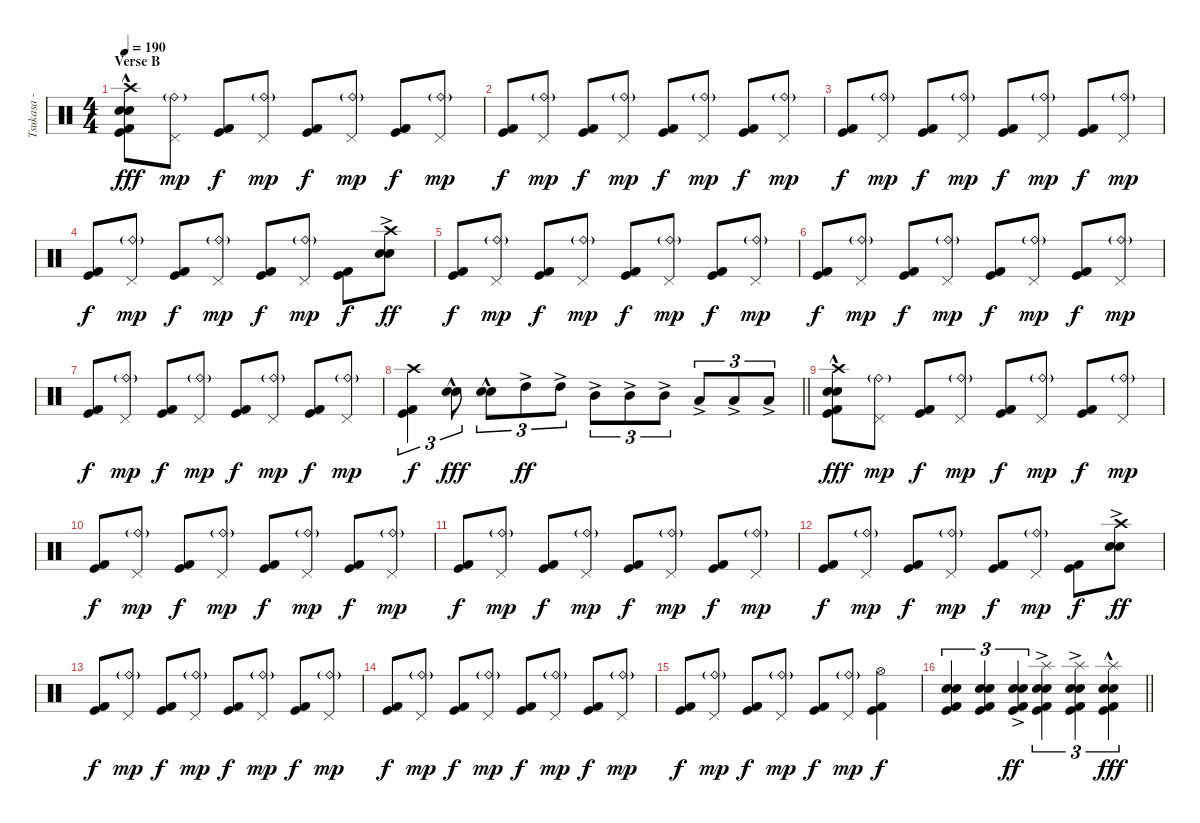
\track ("Tsukasa - Drums" "Tsukasa - ") {instrument percussion}
\staff {score}
\articulation defaults
\ts (4 4)
\section ("" "Verse B")
\tempo 190
\clef neutral
\ks c
("Crash high (hit)" "Electric Snare (hit)"{hac} "Snare (hit) 2" "Kick (hit)" "Kick (hit) 2").8{dy fff} ("Ride (bell)"{g} "Pedal Hi-Hat (hit)").8{dy mp} ("Kick (hit)" "Kick (hit) 2").8{dy f} ("Ride (bell)"{g} "Pedal Hi-Hat (hit)").8{dy mp} ("Kick (hit)" "Kick (hit) 2").8{dy f} ("Ride (bell)"{g} "Pedal Hi-Hat (hit)").8{dy mp} ("Kick (hit)" "Kick (hit) 2").8{dy f} ("Ride (bell)"{g} "Pedal Hi-Hat (hit)").8{dy mp} |
("Kick (hit)" "Kick (hit) 2").8{dy f} ("Ride (bell)"{g} "Pedal Hi-Hat (hit)").8{dy mp} ("Kick (hit)" "Kick (hit) 2").8{dy f} ("Ride (bell)"{g} "Pedal Hi-Hat (hit)").8{dy mp} ("Kick (hit)" "Kick (hit) 2").8{dy f} ("Ride (bell)"{g} "Pedal Hi-Hat (hit)").8{dy mp} ("Kick (hit)" "Kick (hit) 2").8{dy f} ("Ride (bell)"{g} "Pedal Hi-Hat (hit)").8{dy mp} |
("Kick (hit)" "Kick (hit) 2").8{dy f} ("Ride (bell)"{g} "Pedal Hi-Hat (hit)").8{dy mp} ("Kick (hit)" "Kick (hit) 2").8{dy f} ("Ride (bell)"{g} "Pedal Hi-Hat (hit)").8{dy mp} ("Kick (hit)" "Kick (hit) 2").8{dy f} ("Ride (bell)"{g} "Pedal Hi-Hat (hit)").8{dy mp} ("Kick (hit)" "Kick (hit) 2").8{dy f} ("Ride (bell)"{g} "Pedal Hi-Hat (hit)").8{dy mp} |
("Kick (hit)" "Kick (hit) 2").8{dy f} ("Ride (bell)"{g} "Pedal Hi-Hat (hit)").8{dy mp} ("Kick (hit)" "Kick (hit) 2").8{dy f} ("Ride (bell)"{g} "Pedal Hi-Hat (hit)").8{dy mp} ("Kick (hit)" "Kick (hit) 2").8{dy f} ("Ride (bell)"{g} "Pedal Hi-Hat (hit)").8{dy mp} ("Kick (hit)" "Kick (hit) 2").8{dy f} ("Crash high (hit)" "Electric Snare (hit)"{ac} "Snare (hit) 2").8{dy ff} |
("Kick (hit)" "Kick (hit) 2").8{dy f} ("Ride (bell)"{g} "Pedal Hi-Hat (hit)").8{dy mp} ("Kick (hit)" "Kick (hit) 2").8{dy f} ("Ride (bell)"{g} "Pedal Hi-Hat (hit)").8{dy mp} ("Kick (hit)" "Kick (hit) 2").8{dy f} ("Ride (bell)"{g} "Pedal Hi-Hat (hit)").8{dy mp} ("Kick (hit)" "Kick (hit) 2").8{dy f} ("Ride (bell)"{g} "Pedal Hi-Hat (hit)").8{dy mp} |
("Kick (hit)" "Kick (hit) 2").8{dy f} ("Ride (bell)"{g} "Pedal Hi-Hat (hit)").8{dy mp} ("Kick (hit)" "Kick (hit) 2").8{dy f} ("Ride (bell)"{g} "Pedal Hi-Hat (hit)").8{dy mp} ("Kick (hit)" "Kick (hit) 2").8{dy f} ("Ride (bell)"{g} "Pedal Hi-Hat (hit)").8{dy mp} ("Kick (hit)" "Kick (hit) 2").8{dy f} ("Ride (bell)"{g} "Pedal Hi-Hat (hit)").8{dy mp} |
("Kick (hit)" "Kick (hit) 2").8{dy f} ("Ride (bell)"{g} "Pedal Hi-Hat (hit)").8{dy mp} ("Kick (hit)" "Kick (hit) 2").8{dy f} ("Ride (bell)"{g} "Pedal Hi-Hat (hit)").8{dy mp} ("Kick (hit)" "Kick (hit) 2").8{dy f} ("Ride (bell)"{g} "Pedal Hi-Hat (hit)").8{dy mp} ("Kick (hit)" "Kick (hit) 2").8{dy f} ("Ride (bell)"{g} "Pedal Hi-Hat (hit)").8{dy mp} |
\barLineRight lightlight
("Crash high (hit)" "Kick (hit)" "Kick (hit) 2").4{tu (3 2) dy f} ("Electric Snare (hit)"{hac} "Snare (hit) 2").8{tu (3 2) dy fff} ("Electric Snare (hit)"{hac} "Snare (hit) 2").8{tu (3 2)} "High Tom (hit)"{ac}.8{tu (3 2) dy ff} "High Tom (hit)"{ac}.8{tu (3 2)} "Mid Tom (hit)"{ac}.8{tu (3 2)} "Mid Tom (hit)"{ac}.8{tu (3 2)} "Mid Tom (hit)"{ac}.8{tu (3 2)} "Low Tom (hit)"{ac}.8{tu (3 2)} "Low Tom (hit)"{ac}.8{tu (3 2)} "Low Tom (hit)"{ac}.8{tu (3 2)} |
\section ("" "")
("Crash high (hit)" "Electric Snare (hit)"{hac} "Snare (hit) 2" "Kick (hit)" "Kick (hit) 2").8{dy fff} ("Ride (bell)"{g} "Pedal Hi-Hat (hit)").8{dy mp} ("Kick (hit)" "Kick (hit) 2").8{dy f} ("Ride (bell)"{g} "Pedal Hi-Hat (hit)").8{dy mp} ("Kick (hit)" "Kick (hit) 2").8{dy f} ("Ride (bell)"{g} "Pedal Hi-Hat (hit)").8{dy mp} ("Kick (hit)" "Kick (hit) 2").8{dy f} ("Ride (bell)"{g} "Pedal Hi-Hat (hit)").8{dy mp} |
("Kick (hit)" "Kick (hit) 2").8{dy f} ("Ride (bell)"{g} "Pedal Hi-Hat (hit)").8{dy mp} ("Kick (hit)" "Kick (hit) 2").8{dy f} ("Ride (bell)"{g} "Pedal Hi-Hat (hit)").8{dy mp} ("Kick (hit)" "Kick (hit) 2").8{dy f} ("Ride (bell)"{g} "Pedal Hi-Hat (hit)").8{dy mp} ("Kick (hit)" "Kick (hit) 2").8{dy f} ("Ride (bell)"{g} "Pedal Hi-Hat (hit)").8{dy mp} |
("Kick (hit)" "Kick (hit) 2").8{dy f} ("Ride (bell)"{g} "Pedal Hi-Hat (hit)").8{dy mp} ("Kick (hit)" "Kick (hit) 2").8{dy f} ("Ride (bell)"{g} "Pedal Hi-Hat (hit)").8{dy mp} ("Kick (hit)" "Kick (hit) 2").8{dy f} ("Ride (bell)"{g} "Pedal Hi-Hat (hit)").8{dy mp} ("Kick (hit)" "Kick (hit) 2").8{dy f} ("Ride (bell)"{g} "Pedal Hi-Hat (hit)").8{dy mp} |
("Kick (hit)" "Kick (hit) 2").8{dy f} ("Ride (bell)"{g} "Pedal Hi-Hat (hit)").8{dy mp} ("Kick (hit)" "Kick (hit) 2").8{dy f} ("Ride (bell)"{g} "Pedal Hi-Hat (hit)").8{dy mp} ("Kick (hit)" "Kick (hit) 2").8{dy f} ("Ride (bell)"{g} "Pedal Hi-Hat (hit)").8{dy mp} ("Kick (hit)" "Kick (hit) 2").8{dy f} ("Crash high (hit)" "Electric Snare (hit)"{ac} "Snare (hit) 2").8{dy ff} |
("Kick (hit)" "Kick (hit) 2").8{dy f} ("Ride (bell)"{g} "Pedal Hi-Hat (hit)").8{dy mp} ("Kick (hit)" "Kick (hit) 2").8{dy f} ("Ride (bell)"{g} "Pedal Hi-Hat (hit)").8{dy mp} ("Kick (hit)" "Kick (hit) 2").8{dy f} ("Ride (bell)"{g} "Pedal Hi-Hat (hit)").8{dy mp} ("Kick (hit)" "Kick (hit) 2").8{dy f} ("Ride (bell)"{g} "Pedal Hi-Hat (hit)").8{dy mp} |
("Kick (hit)" "Kick (hit) 2").8{dy f} ("Ride (bell)"{g} "Pedal Hi-Hat (hit)").8{dy mp} ("Kick (hit)" "Kick (hit) 2").8{dy f} ("Ride (bell)"{g} "Pedal Hi-Hat (hit)").8{dy mp} ("Kick (hit)" "Kick (hit) 2").8{dy f} ("Ride (bell)"{g} "Pedal Hi-Hat (hit)").8{dy mp} ("Kick (hit)" "Kick (hit) 2").8{dy f} ("Ride (bell)"{g} "Pedal Hi-Hat (hit)").8{dy mp} |
("Kick (hit)" "Kick (hit) 2").8{dy f} ("Ride (bell)"{g} "Pedal Hi-Hat (hit)").8{dy mp} ("Kick (hit)" "Kick (hit) 2").8{dy f} ("Ride (bell)"{g} "Pedal Hi-Hat (hit)").8{dy mp} ("Kick (hit)" "Kick (hit) 2").8{dy f} ("Ride (bell)"{g} "Pedal Hi-Hat (hit)").8{dy mp} ("Hi-Hat (open)" "Kick (hit)" "Kick (hit) 2").4{dy f} |
\barLineRight lightlight
("Electric Snare (hit)" "Snare (hit) 2" "Kick (hit)" "Kick (hit) 2").4{tu (3 2)} ("Electric Snare (hit)" "Snare (hit) 2" "Kick (hit)" "Kick (hit) 2").4{tu (3 2)} ("Electric Snare (hit)"{ac} "Snare (hit) 2" "Kick (hit)" "Kick (hit) 2").4{tu (3 2) dy ff} ("Splash (hit)" "Electric Snare (hit)"{ac} "Snare (hit) 2" "Kick (hit)" "Kick (hit) 2").4{tu (3 2)} ("Splash (hit)"{ac} "Electric Snare (hit)"{ac} "Snare (hit) 2" "Kick (hit)" "Kick (hit) 2").4{tu (3 2)} ("Splash (hit)"{hac} "Electric Snare (hit)"{hac} "Snare (hit) 2" "Kick (hit)" "Kick (hit) 2").4{tu (3 2) dy fff}
